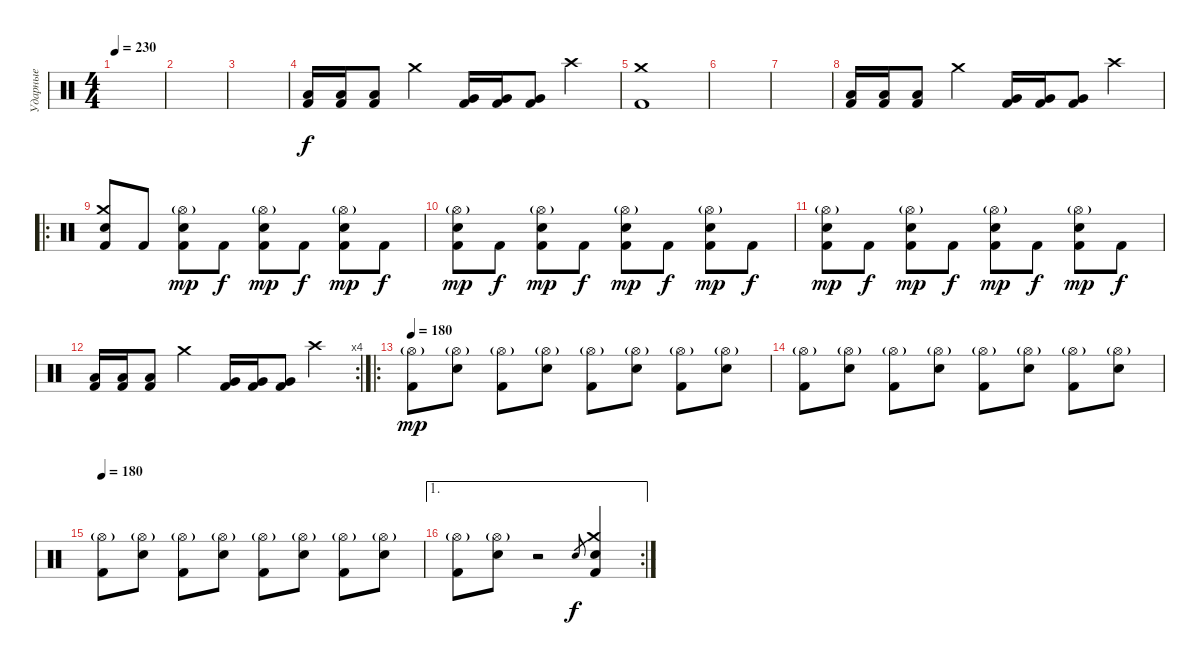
\track ("Ударные" "Ударные") {instrument percussion}
\staff {score}
\articulation defaults
\ts (4 4)
\tempo 230
\clef neutral
\ks c
|
|
|
("Low Tom (hit)" "Kick (hit) 2").16 ("Low Tom (hit)" "Kick (hit) 2").16 ("Low Tom (hit)" "Kick (hit) 2").8 "Crash medium (hit)".4 ("Very Low Tom (hit)" "Kick (hit) 2").16 ("Very Low Tom (hit)" "Kick (hit) 2").16 ("Very Low Tom (hit)" "Kick (hit) 2").8 "Crash high (hit)".4 |
("Crash medium (hit)" "Kick (hit) 2").1 |
|
|
("Low Tom (hit)" "Kick (hit) 2").16 ("Low Tom (hit)" "Kick (hit) 2").16 ("Low Tom (hit)" "Kick (hit) 2").8 "Crash medium (hit)".4 ("Very Low Tom (hit)" "Kick (hit) 2").16 ("Very Low Tom (hit)" "Kick (hit) 2").16 ("Very Low Tom (hit)" "Kick (hit) 2").8 "Crash high (hit)".4 |
\ro
("Electric Snare (hit)" "Crash medium (hit)" "Kick (hit) 2").8 "Kick (hit) 2".8 ("Electric Snare (hit)" "Hi-Hat (open)"{g} "Kick (hit) 2").8{dy mp} "Kick (hit) 2".8{dy f} ("Electric Snare (hit)" "Hi-Hat (open)"{g} "Kick (hit) 2").8{dy mp} "Kick (hit) 2".8{dy f} ("Electric Snare (hit)" "Hi-Hat (open)"{g} "Kick (hit) 2").8{dy mp} "Kick (hit) 2".8{dy f} |
("Electric Snare (hit)" "Hi-Hat (open)"{g} "Kick (hit) 2").8{dy mp} "Kick (hit) 2".8{dy f} ("Electric Snare (hit)" "Hi-Hat (open)"{g} "Kick (hit) 2").8{dy mp} "Kick (hit) 2".8{dy f} ("Electric Snare (hit)" "Hi-Hat (open)"{g} "Kick (hit) 2").8{dy mp} "Kick (hit) 2".8{dy f} ("Electric Snare (hit)" "Hi-Hat (open)"{g} "Kick (hit) 2").8{dy mp} "Kick (hit) 2".8{dy f} |
("Electric Snare (hit)" "Hi-Hat (open)"{g} "Kick (hit) 2").8{dy mp} "Kick (hit) 2".8{dy f} ("Electric Snare (hit)" "Hi-Hat (open)"{g} "Kick (hit) 2").8{dy mp} "Kick (hit) 2".8{dy f} ("Electric Snare (hit)" "Hi-Hat (open)"{g} "Kick (hit) 2").8{dy mp} "Kick (hit) 2".8{dy f} ("Electric Snare (hit)" "Hi-Hat (open)"{g} "Kick (hit) 2").8{dy mp} "Kick (hit) 2".8{dy f} |
\rc 4
("Low Tom (hit)" "Kick (hit) 2").16 ("Low Tom (hit)" "Kick (hit) 2").16 ("Low Tom (hit)" "Kick (hit) 2").8 "Crash medium (hit)".4 ("Very Low Tom (hit)" "Kick (hit) 2").16 ("Very Low Tom (hit)" "Kick (hit) 2").16 ("Very Low Tom (hit)" "Kick (hit) 2").8 "Crash high (hit)".4 |
\ro
\tempo 180
("Hi-Hat (open)"{g} "Kick (hit) 2").8{dy mp} ("Electric Snare (hit)" "Hi-Hat (open)"{g}).8 ("Hi-Hat (open)"{g} "Kick (hit) 2").8 ("Electric Snare (hit)" "Hi-Hat (open)"{g}).8 ("Hi-Hat (open)"{g} "Kick (hit) 2").8 ("Electric Snare (hit)" "Hi-Hat (open)"{g}).8 ("Hi-Hat (open)"{g} "Kick (hit) 2").8 ("Electric Snare (hit)" "Hi-Hat (open)"{g}).8 |
("Hi-Hat (open)"{g} "Kick (hit) 2").8 ("Electric Snare (hit)" "Hi-Hat (open)"{g}).8 ("Hi-Hat (open)"{g} "Kick (hit) 2").8 ("Electric Snare (hit)" "Hi-Hat (open)"{g}).8 ("Hi-Hat (open)"{g} "Kick (hit) 2").8 ("Electric Snare (hit)" "Hi-Hat (open)"{g}).8 ("Hi-Hat (open)"{g} "Kick (hit) 2").8 ("Electric Snare (hit)" "Hi-Hat (open)"{g}).8 |
\tempo 180
("Hi-Hat (open)"{g} "Kick (hit) 2").8 ("Electric Snare (hit)" "Hi-Hat (open)"{g}).8 ("Hi-Hat (open)"{g} "Kick (hit) 2").8 ("Electric Snare (hit)" "Hi-Hat (open)"{g}).8 ("Hi-Hat (open)"{g} "Kick (hit) 2").8 ("Electric Snare (hit)" "Hi-Hat (open)"{g}).8 ("Hi-Hat (open)"{g} "Kick (hit) 2").8 ("Electric Snare (hit)" "Hi-Hat (open)"{g}).8 |
\ae 1
\rc 2
("Hi-Hat (open)"{g} "Kick (hit) 2").8 ("Electric Snare (hit)" "Hi-Hat (open)"{g}).8 r.2 "Electric Snare (hit)".8{gr dy f} ("Crash medium (hit)" "Electric Snare (hit)" "Kick (hit) 2").4
